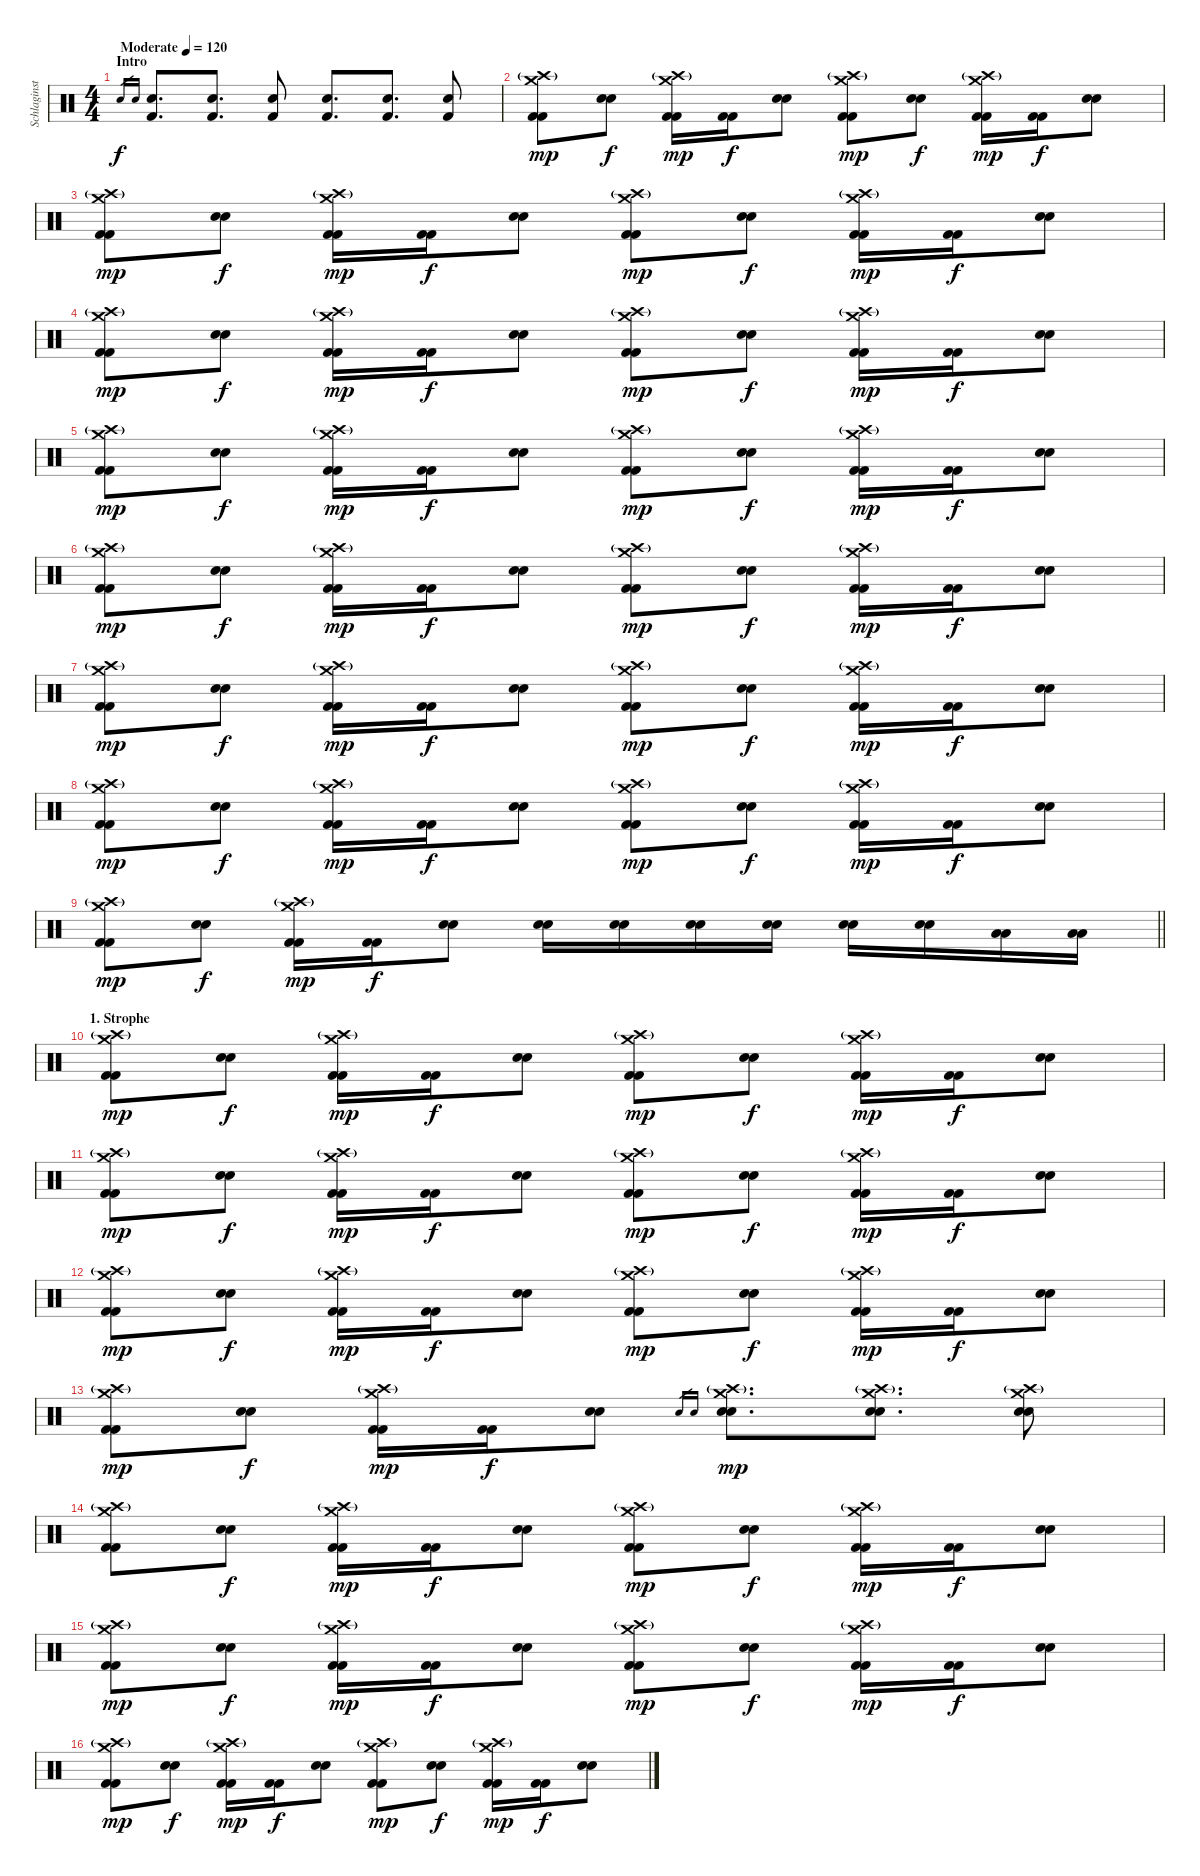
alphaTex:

\track ("Schlaginstrumente - Auswahl" "Schlaginst") {instrument percussion}
\staff {score}
\articulation defaults
\ts (4 4)
\section ("" "Intro")
\tempo (120 "Moderate")
\tempo 135
\tempo (120 "Moderate")
\clef neutral
\ks c "Electric Snare (hit)".16{gr dy f} "Electric Snare (hit)".16{gr}
("Electric Snare (hit)" "Kick (hit) 2").8{d} ("Electric Snare (hit)" "Kick (hit) 2").8{d} ("Electric Snare (hit)" "Kick (hit) 2").8 ("Electric Snare (hit)" "Kick (hit) 2").8{d} ("Electric Snare (hit)" "Kick (hit) 2").8{d} ("Electric Snare (hit)" "Kick (hit) 2").8 |
("Crash high (hit)"{g} "Crash medium (hit)" "Kick (hit) 2" "Kick (hit) 2").8{dy mp} ("Electric Snare (hit)" "Electric Snare (hit)").8{dy f} ("Crash high (hit)"{g} "Crash medium (hit)" "Kick (hit) 2" "Kick (hit) 2").16{dy mp} ("Kick (hit) 2" "Kick (hit) 2").16{dy f} ("Electric Snare (hit)" "Electric Snare (hit)").8 ("Crash high (hit)"{g} "Crash medium (hit)" "Kick (hit) 2" "Kick (hit) 2").8{dy mp} ("Electric Snare (hit)" "Electric Snare (hit)").8{dy f} ("Crash high (hit)"{g} "Crash medium (hit)" "Kick (hit) 2" "Kick (hit) 2").16{dy mp} ("Kick (hit) 2" "Kick (hit) 2").16{dy f} ("Electric Snare (hit)" "Electric Snare (hit)").8 |
("Crash high (hit)"{g} "Crash medium (hit)" "Kick (hit) 2" "Kick (hit) 2").8{dy mp} ("Electric Snare (hit)" "Electric Snare (hit)").8{dy f} ("Crash high (hit)"{g} "Crash medium (hit)" "Kick (hit) 2" "Kick (hit) 2").16{dy mp} ("Kick (hit) 2" "Kick (hit) 2").16{dy f} ("Electric Snare (hit)" "Electric Snare (hit)").8 ("Crash high (hit)"{g} "Crash medium (hit)" "Kick (hit) 2" "Kick (hit) 2").8{dy mp} ("Electric Snare (hit)" "Electric Snare (hit)").8{dy f} ("Crash high (hit)"{g} "Crash medium (hit)" "Kick (hit) 2" "Kick (hit) 2").16{dy mp} ("Kick (hit) 2" "Kick (hit) 2").16{dy f} ("Electric Snare (hit)" "Electric Snare (hit)").8 |
("Crash high (hit)"{g} "Crash medium (hit)" "Kick (hit) 2" "Kick (hit) 2").8{dy mp} ("Electric Snare (hit)" "Electric Snare (hit)").8{dy f} ("Crash high (hit)"{g} "Crash medium (hit)" "Kick (hit) 2" "Kick (hit) 2").16{dy mp} ("Kick (hit) 2" "Kick (hit) 2").16{dy f} ("Electric Snare (hit)" "Electric Snare (hit)").8 ("Crash high (hit)"{g} "Crash medium (hit)" "Kick (hit) 2" "Kick (hit) 2").8{dy mp} ("Electric Snare (hit)" "Electric Snare (hit)").8{dy f} ("Crash high (hit)"{g} "Crash medium (hit)" "Kick (hit) 2" "Kick (hit) 2").16{dy mp} ("Kick (hit) 2" "Kick (hit) 2").16{dy f} ("Electric Snare (hit)" "Electric Snare (hit)").8 |
("Crash high (hit)"{g} "Crash medium (hit)" "Kick (hit) 2" "Kick (hit) 2").8{dy mp} ("Electric Snare (hit)" "Electric Snare (hit)").8{dy f} ("Crash high (hit)"{g} "Crash medium (hit)" "Kick (hit) 2" "Kick (hit) 2").16{dy mp} ("Kick (hit) 2" "Kick (hit) 2").16{dy f} ("Electric Snare (hit)" "Electric Snare (hit)").8 ("Crash high (hit)"{g} "Crash medium (hit)" "Kick (hit) 2" "Kick (hit) 2").8{dy mp} ("Electric Snare (hit)" "Electric Snare (hit)").8{dy f} ("Crash high (hit)"{g} "Crash medium (hit)" "Kick (hit) 2" "Kick (hit) 2").16{dy mp} ("Kick (hit) 2" "Kick (hit) 2").16{dy f} ("Electric Snare (hit)" "Electric Snare (hit)").8 |
("Crash high (hit)"{g} "Crash medium (hit)" "Kick (hit) 2" "Kick (hit) 2").8{dy mp} ("Electric Snare (hit)" "Electric Snare (hit)").8{dy f} ("Crash high (hit)"{g} "Crash medium (hit)" "Kick (hit) 2" "Kick (hit) 2").16{dy mp} ("Kick (hit) 2" "Kick (hit) 2").16{dy f} ("Electric Snare (hit)" "Electric Snare (hit)").8 ("Crash high (hit)"{g} "Crash medium (hit)" "Kick (hit) 2" "Kick (hit) 2").8{dy mp} ("Electric Snare (hit)" "Electric Snare (hit)").8{dy f} ("Crash high (hit)"{g} "Crash medium (hit)" "Kick (hit) 2" "Kick (hit) 2").16{dy mp} ("Kick (hit) 2" "Kick (hit) 2").16{dy f} ("Electric Snare (hit)" "Electric Snare (hit)").8 |
("Crash high (hit)"{g} "Crash medium (hit)" "Kick (hit) 2" "Kick (hit) 2").8{dy mp} ("Electric Snare (hit)" "Electric Snare (hit)").8{dy f} ("Crash high (hit)"{g} "Crash medium (hit)" "Kick (hit) 2" "Kick (hit) 2").16{dy mp} ("Kick (hit) 2" "Kick (hit) 2").16{dy f} ("Electric Snare (hit)" "Electric Snare (hit)").8 ("Crash high (hit)"{g} "Crash medium (hit)" "Kick (hit) 2" "Kick (hit) 2").8{dy mp} ("Electric Snare (hit)" "Electric Snare (hit)").8{dy f} ("Crash high (hit)"{g} "Crash medium (hit)" "Kick (hit) 2" "Kick (hit) 2").16{dy mp} ("Kick (hit) 2" "Kick (hit) 2").16{dy f} ("Electric Snare (hit)" "Electric Snare (hit)").8 |
("Crash high (hit)"{g} "Crash medium (hit)" "Kick (hit) 2" "Kick (hit) 2").8{dy mp} ("Electric Snare (hit)" "Electric Snare (hit)").8{dy f} ("Crash high (hit)"{g} "Crash medium (hit)" "Kick (hit) 2" "Kick (hit) 2").16{dy mp} ("Kick (hit) 2" "Kick (hit) 2").16{dy f} ("Electric Snare (hit)" "Electric Snare (hit)").8 ("Crash high (hit)"{g} "Crash medium (hit)" "Kick (hit) 2" "Kick (hit) 2").8{dy mp} ("Electric Snare (hit)" "Electric Snare (hit)").8{dy f} ("Crash high (hit)"{g} "Crash medium (hit)" "Kick (hit) 2" "Kick (hit) 2").16{dy mp} ("Kick (hit) 2" "Kick (hit) 2").16{dy f} ("Electric Snare (hit)" "Electric Snare (hit)").8 |
\barLineRight lightlight
("Crash high (hit)"{g} "Crash medium (hit)" "Kick (hit) 2" "Kick (hit) 2").8{dy mp} ("Electric Snare (hit)" "Electric Snare (hit)").8{dy f} ("Crash high (hit)"{g} "Crash medium (hit)" "Kick (hit) 2" "Kick (hit) 2").16{dy mp} ("Kick (hit) 2" "Kick (hit) 2").16{dy f} ("Electric Snare (hit)" "Electric Snare (hit)").8 ("Electric Snare (hit)" "Electric Snare (hit)").16 ("Electric Snare (hit)" "Electric Snare (hit)").16 ("Electric Snare (hit)" "Electric Snare (hit)").16 ("Electric Snare (hit)" "Electric Snare (hit)").16 ("Snare (hit) 2" "Snare (hit) 2").16 ("Snare (hit) 2" "Snare (hit) 2").16 ("Low Tom (hit)" "Low Tom (hit)").16 ("Low Tom (hit)" "Low Tom (hit)").16 |
\section ("" "1. Strophe")
("Crash high (hit)"{g} "Crash medium (hit)" "Kick (hit) 2" "Kick (hit) 2").8{dy mp} ("Electric Snare (hit)" "Electric Snare (hit)").8{dy f} ("Crash high (hit)"{g} "Crash medium (hit)" "Kick (hit) 2" "Kick (hit) 2").16{dy mp} ("Kick (hit) 2" "Kick (hit) 2").16{dy f} ("Electric Snare (hit)" "Electric Snare (hit)").8 ("Crash high (hit)"{g} "Crash medium (hit)" "Kick (hit) 2" "Kick (hit) 2").8{dy mp} ("Electric Snare (hit)" "Electric Snare (hit)").8{dy f} ("Crash high (hit)"{g} "Crash medium (hit)" "Kick (hit) 2" "Kick (hit) 2").16{dy mp} ("Kick (hit) 2" "Kick (hit) 2").16{dy f} ("Electric Snare (hit)" "Electric Snare (hit)").8 |
("Crash high (hit)"{g} "Crash medium (hit)" "Kick (hit) 2" "Kick (hit) 2").8{dy mp} ("Electric Snare (hit)" "Electric Snare (hit)").8{dy f} ("Crash high (hit)"{g} "Crash medium (hit)" "Kick (hit) 2" "Kick (hit) 2").16{dy mp} ("Kick (hit) 2" "Kick (hit) 2").16{dy f} ("Electric Snare (hit)" "Electric Snare (hit)").8 ("Crash high (hit)"{g} "Crash medium (hit)" "Kick (hit) 2" "Kick (hit) 2").8{dy mp} ("Electric Snare (hit)" "Electric Snare (hit)").8{dy f} ("Crash high (hit)"{g} "Crash medium (hit)" "Kick (hit) 2" "Kick (hit) 2").16{dy mp} ("Kick (hit) 2" "Kick (hit) 2").16{dy f} ("Electric Snare (hit)" "Electric Snare (hit)").8 |
("Crash high (hit)"{g} "Crash medium (hit)" "Kick (hit) 2" "Kick (hit) 2").8{dy mp} ("Electric Snare (hit)" "Electric Snare (hit)").8{dy f} ("Crash high (hit)"{g} "Crash medium (hit)" "Kick (hit) 2" "Kick (hit) 2").16{dy mp} ("Kick (hit) 2" "Kick (hit) 2").16{dy f} ("Electric Snare (hit)" "Electric Snare (hit)").8 ("Crash high (hit)"{g} "Crash medium (hit)" "Kick (hit) 2" "Kick (hit) 2").8{dy mp} ("Electric Snare (hit)" "Electric Snare (hit)").8{dy f} ("Crash high (hit)"{g} "Crash medium (hit)" "Kick (hit) 2" "Kick (hit) 2").16{dy mp} ("Kick (hit) 2" "Kick (hit) 2").16{dy f} ("Electric Snare (hit)" "Electric Snare (hit)").8 |
("Crash high (hit)"{g} "Crash medium (hit)" "Kick (hit) 2" "Kick (hit) 2").8{dy mp} ("Electric Snare (hit)" "Electric Snare (hit)").8{dy f} ("Crash high (hit)"{g} "Crash medium (hit)" "Kick (hit) 2" "Kick (hit) 2").16{dy mp} ("Kick (hit) 2" "Kick (hit) 2").16{dy f} ("Electric Snare (hit)" "Electric Snare (hit)").8 "Electric Snare (hit)".16{gr} "Electric Snare (hit)".16{gr} ("Crash high (hit)"{g} "Crash medium (hit)" "Electric Snare (hit)" "Electric Snare (hit)").8{d dy mp} ("Crash high (hit)"{g} "Crash medium (hit)" "Electric Snare (hit)" "Electric Snare (hit)").8{d} ("Crash high (hit)"{g} "Crash medium (hit)" "Electric Snare (hit)" "Electric Snare (hit)").8 |
("Crash high (hit)"{g} "Crash medium (hit)" "Kick (hit) 2" "Kick (hit) 2").8 ("Electric Snare (hit)" "Electric Snare (hit)").8{dy f} ("Crash high (hit)"{g} "Crash medium (hit)" "Kick (hit) 2" "Kick (hit) 2").16{dy mp} ("Kick (hit) 2" "Kick (hit) 2").16{dy f} ("Electric Snare (hit)" "Electric Snare (hit)").8 ("Crash high (hit)"{g} "Crash medium (hit)" "Kick (hit) 2" "Kick (hit) 2").8{dy mp} ("Electric Snare (hit)" "Electric Snare (hit)").8{dy f} ("Crash high (hit)"{g} "Crash medium (hit)" "Kick (hit) 2" "Kick (hit) 2").16{dy mp} ("Kick (hit) 2" "Kick (hit) 2").16{dy f} ("Electric Snare (hit)" "Electric Snare (hit)").8 |
("Crash high (hit)"{g} "Crash medium (hit)" "Kick (hit) 2" "Kick (hit) 2").8{dy mp} ("Electric Snare (hit)" "Electric Snare (hit)").8{dy f} ("Crash high (hit)"{g} "Crash medium (hit)" "Kick (hit) 2" "Kick (hit) 2").16{dy mp} ("Kick (hit) 2" "Kick (hit) 2").16{dy f} ("Electric Snare (hit)" "Electric Snare (hit)").8 ("Crash high (hit)"{g} "Crash medium (hit)" "Kick (hit) 2" "Kick (hit) 2").8{dy mp} ("Electric Snare (hit)" "Electric Snare (hit)").8{dy f} ("Crash high (hit)"{g} "Crash medium (hit)" "Kick (hit) 2" "Kick (hit) 2").16{dy mp} ("Kick (hit) 2" "Kick (hit) 2").16{dy f} ("Electric Snare (hit)" "Electric Snare (hit)").8 |
("Crash high (hit)"{g} "Crash medium (hit)" "Kick (hit) 2" "Kick (hit) 2").8{dy mp} ("Electric Snare (hit)" "Electric Snare (hit)").8{dy f} ("Crash high (hit)"{g} "Crash medium (hit)" "Kick (hit) 2" "Kick (hit) 2").16{dy mp} ("Kick (hit) 2" "Kick (hit) 2").16{dy f} ("Electric Snare (hit)" "Electric Snare (hit)").8 ("Crash high (hit)"{g} "Crash medium (hit)" "Kick (hit) 2" "Kick (hit) 2").8{dy mp} ("Electric Snare (hit)" "Electric Snare (hit)").8{dy f} ("Crash high (hit)"{g} "Crash medium (hit)" "Kick (hit) 2" "Kick (hit) 2").16{dy mp} ("Kick (hit) 2" "Kick (hit) 2").16{dy f} ("Electric Snare (hit)" "Electric Snare (hit)").8
